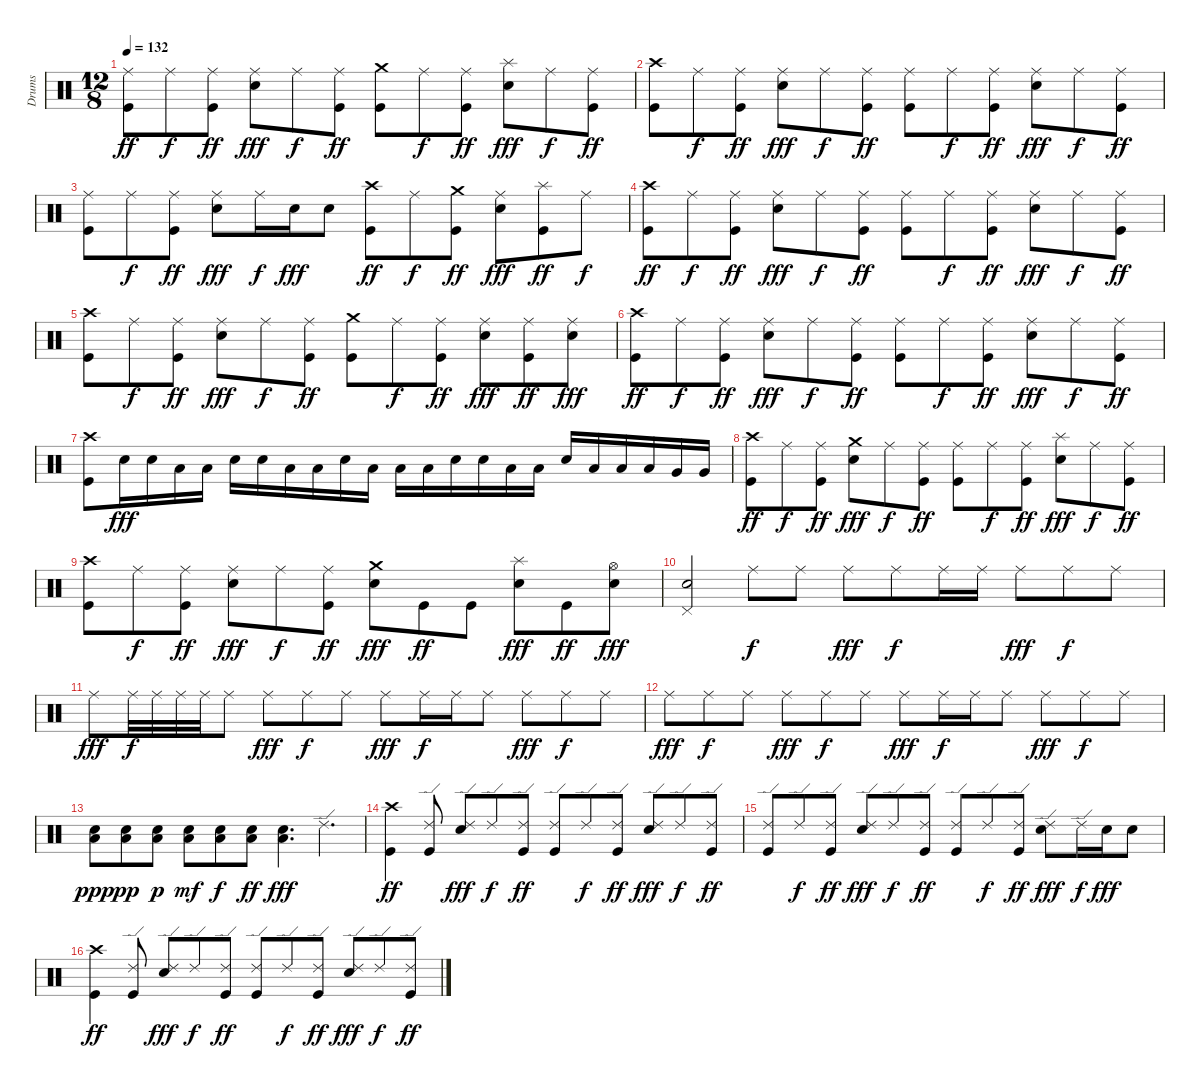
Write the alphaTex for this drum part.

\track ("Drums" "Drums") {instrument percussion}
\staff {score}
\articulation defaults
\ts (12 8)
\tempo 132
\clef neutral
\ks c
("Ride (middle)" "Kick (hit)").8{dy ff} "Ride (middle)".8{dy f} ("Ride (middle)" "Kick (hit)").8{dy ff} ("Ride (middle)" "Snare (hit) 2").8{dy fff} "Ride (middle)".8{dy f} ("Ride (middle)" "Kick (hit)").8{dy ff} ("Crash medium (hit)" "Kick (hit)").8 "Ride (middle)".8{dy f} ("Ride (middle)" "Kick (hit)").8{dy ff} ("Splash (hit)" "Snare (hit) 2").8{dy fff} "Ride (middle)".8{dy f} ("Ride (middle)" "Kick (hit)").8{dy ff} |
("Crash high (hit)" "Kick (hit)").8 "Ride (middle)".8{dy f} ("Ride (middle)" "Kick (hit)").8{dy ff} ("Ride (middle)" "Snare (hit) 2").8{dy fff} "Ride (middle)".8{dy f} ("Ride (middle)" "Kick (hit)").8{dy ff} ("Ride (middle)" "Kick (hit)").8 "Ride (middle)".8{dy f} ("Ride (middle)" "Kick (hit)").8{dy ff} ("Ride (middle)" "Snare (hit) 2").8{dy fff} "Ride (middle)".8{dy f} ("Ride (middle)" "Kick (hit)").8{dy ff} |
("Ride (middle)" "Kick (hit)").8 "Ride (middle)".8{dy f} ("Ride (middle)" "Kick (hit)").8{dy ff} ("Ride (middle)" "Snare (hit) 2").8{dy fff} "Ride (middle)".16{dy f} "Snare (hit) 2".16{dy fff} "Snare (hit) 2".8 ("Crash high (hit)" "Kick (hit)").8{dy ff} "Ride (middle)".8{dy f} ("Crash medium (hit)" "Kick (hit)").8{dy ff} ("Ride (middle)" "Snare (hit) 2").8{dy fff} ("Splash (hit)" "Kick (hit)").8{dy ff} "Ride (middle)".8{dy f} |
("Crash high (hit)" "Kick (hit)").8{dy ff} "Ride (middle)".8{dy f} ("Ride (middle)" "Kick (hit)").8{dy ff} ("Ride (middle)" "Snare (hit) 2").8{dy fff} "Ride (middle)".8{dy f} ("Ride (middle)" "Kick (hit)").8{dy ff} ("Ride (middle)" "Kick (hit)").8 "Ride (middle)".8{dy f} ("Ride (middle)" "Kick (hit)").8{dy ff} ("Ride (middle)" "Snare (hit) 2").8{dy fff} "Ride (middle)".8{dy f} ("Ride (middle)" "Kick (hit)").8{dy ff} |
("Crash high (hit)" "Kick (hit)").8 "Ride (middle)".8{dy f} ("Ride (middle)" "Kick (hit)").8{dy ff} ("Ride (middle)" "Snare (hit) 2").8{dy fff} "Ride (middle)".8{dy f} ("Ride (middle)" "Kick (hit)").8{dy ff} ("Crash medium (hit)" "Kick (hit)").8 "Ride (middle)".8{dy f} ("Ride (middle)" "Kick (hit)").8{dy ff} ("Ride (middle)" "Snare (hit) 2").8{dy fff} ("Ride (middle)" "Kick (hit)").8{dy ff} ("Ride (middle)" "Snare (hit) 2").8{dy fff} |
("Crash high (hit)" "Kick (hit)").8{dy ff} "Ride (middle)".8{dy f} ("Ride (middle)" "Kick (hit)").8{dy ff} ("Ride (middle)" "Snare (hit) 2").8{dy fff} "Ride (middle)".8{dy f} ("Ride (middle)" "Kick (hit)").8{dy ff} ("Ride (middle)" "Kick (hit)").8 "Ride (middle)".8{dy f} ("Ride (middle)" "Kick (hit)").8{dy ff} ("Ride (middle)" "Snare (hit) 2").8{dy fff} "Ride (middle)".8{dy f} ("Ride (middle)" "Kick (hit)").8{dy ff} |
("Crash high (hit)" "Kick (hit)").8 "Snare (hit) 2".16{dy fff} "Snare (hit) 2".16 "Low Tom (hit)".16 "Low Tom (hit)".16 "Snare (hit) 2".16 "Snare (hit) 2".16 "Low Tom (hit)".16 "Low Tom (hit)".16 "Snare (hit) 2".16 "Low Tom (hit)".16 "Low Tom (hit)".16 "Low Tom (hit)".16 "Snare (hit) 2".16 "Snare (hit) 2".16 "Low Tom (hit)".16 "Low Tom (hit)".16 "Snare (hit) 2".16 "Low Tom (hit)".16 "Low Tom (hit)".16 "Low Tom (hit)".16 "Very Low Tom (hit)".16 "Very Low Tom (hit)".16 |
("Crash high (hit)" "Kick (hit)").8{dy ff} "Ride (middle)".8{dy f} ("Ride (middle)" "Kick (hit)").8{dy ff} ("Crash medium (hit)" "Snare (hit) 2").8{dy fff} "Ride (middle)".8{dy f} ("Ride (middle)" "Kick (hit)").8{dy ff} ("Ride (middle)" "Kick (hit)").8 "Ride (middle)".8{dy f} ("Ride (middle)" "Kick (hit)").8{dy ff} ("Splash (hit)" "Snare (hit) 2").8{dy fff} "Ride (middle)".8{dy f} ("Ride (middle)" "Kick (hit)").8{dy ff} |
("Crash high (hit)" "Kick (hit)").8 "Ride (middle)".8{dy f} ("Ride (middle)" "Kick (hit)").8{dy ff} ("Ride (middle)" "Snare (hit) 2").8{dy fff} "Ride (middle)".8{dy f} ("Ride (middle)" "Kick (hit)").8{dy ff} ("Crash medium (hit)" "Snare (hit) 2").8{dy fff} "Kick (hit)".8{dy ff} "Kick (hit)".8 ("Splash (hit)" "Snare (hit) 2").8{dy fff} "Kick (hit)".8{dy ff} ("Hi-Hat (open)" "Snare (hit) 2").8{dy fff} |
("Pedal Hi-Hat (hit)" "Snare (hit) 2").2 "Ride (middle)".8{dy f} "Ride (middle)".8 "Ride (middle)".8{dy fff} "Ride (middle)".8{dy f} "Ride (middle)".16 "Ride (middle)".16 "Ride (middle)".8{dy fff} "Ride (middle)".8{dy f} "Ride (middle)".8 |
"Ride (middle)".8{dy fff} "Ride (middle)".32{dy f} "Ride (middle)".32 "Ride (middle)".32 "Ride (middle)".32 "Ride (middle)".8 "Ride (middle)".8{dy fff} "Ride (middle)".8{dy f} "Ride (middle)".8 "Ride (middle)".8{dy fff} "Ride (middle)".16{dy f} "Ride (middle)".16 "Ride (middle)".8 "Ride (middle)".8{dy fff} "Ride (middle)".8{dy f} "Ride (middle)".8 |
"Ride (middle)".8{dy fff} "Ride (middle)".8{dy f} "Ride (middle)".8 "Ride (middle)".8{dy fff} "Ride (middle)".8{dy f} "Ride (middle)".8 "Ride (middle)".8{dy fff} "Ride (middle)".16{dy f} "Ride (middle)".16 "Ride (middle)".8 "Ride (middle)".8{dy fff} "Ride (middle)".8{dy f} "Ride (middle)".8 |
("Low Floor Tom (hit)" "Snare (hit) 2").8{dy ppp} ("Low Floor Tom (hit)" "Snare (hit) 2").8{dy pp} ("Low Floor Tom (hit)" "Snare (hit) 2").8{dy p} ("Low Floor Tom (hit)" "Snare (hit) 2").8{dy mf} ("Low Floor Tom (hit)" "Snare (hit) 2").8{dy f} ("Low Floor Tom (hit)" "Snare (hit) 2").8{dy ff} ("Low Floor Tom (hit)" "Snare (hit) 2").4{d dy fff} "Ride (edge) 2".4{d} |
("Crash high (hit)" "Kick (hit)").4{dy ff} ("Ride (edge) 2" "Kick (hit)").8 ("Ride (edge) 2" "Snare (hit) 2").8{dy fff} "Ride (edge) 2".8{dy f} ("Ride (edge) 2" "Kick (hit)").8{dy ff} ("Ride (edge) 2" "Kick (hit)").8 "Ride (edge) 2".8{dy f} ("Ride (edge) 2" "Kick (hit)").8{dy ff} ("Ride (edge) 2" "Snare (hit) 2").8{dy fff} "Ride (edge) 2".8{dy f} ("Ride (edge) 2" "Kick (hit)").8{dy ff} |
("Ride (edge) 2" "Kick (hit)").8 "Ride (edge) 2".8{dy f} ("Ride (edge) 2" "Kick (hit)").8{dy ff} ("Ride (edge) 2" "Snare (hit) 2").8{dy fff} "Ride (edge) 2".8{dy f} ("Ride (edge) 2" "Kick (hit)").8{dy ff} ("Ride (edge) 2" "Kick (hit)").8 "Ride (edge) 2".8{dy f} ("Ride (edge) 2" "Kick (hit)").8{dy ff} ("Ride (edge) 2" "Snare (hit) 2").8{dy fff} "Ride (edge) 2".16{dy f} "Snare (hit) 2".16{dy fff} "Snare (hit) 2".8 |
("Crash high (hit)" "Kick (hit)").4{dy ff} ("Ride (edge) 2" "Kick (hit)").8 ("Ride (edge) 2" "Snare (hit) 2").8{dy fff} "Ride (edge) 2".8{dy f} ("Ride (edge) 2" "Kick (hit)").8{dy ff} ("Ride (edge) 2" "Kick (hit)").8 "Ride (edge) 2".8{dy f} ("Ride (edge) 2" "Kick (hit)").8{dy ff} ("Ride (edge) 2" "Snare (hit) 2").8{dy fff} "Ride (edge) 2".8{dy f} ("Ride (edge) 2" "Kick (hit)").8{dy ff}
